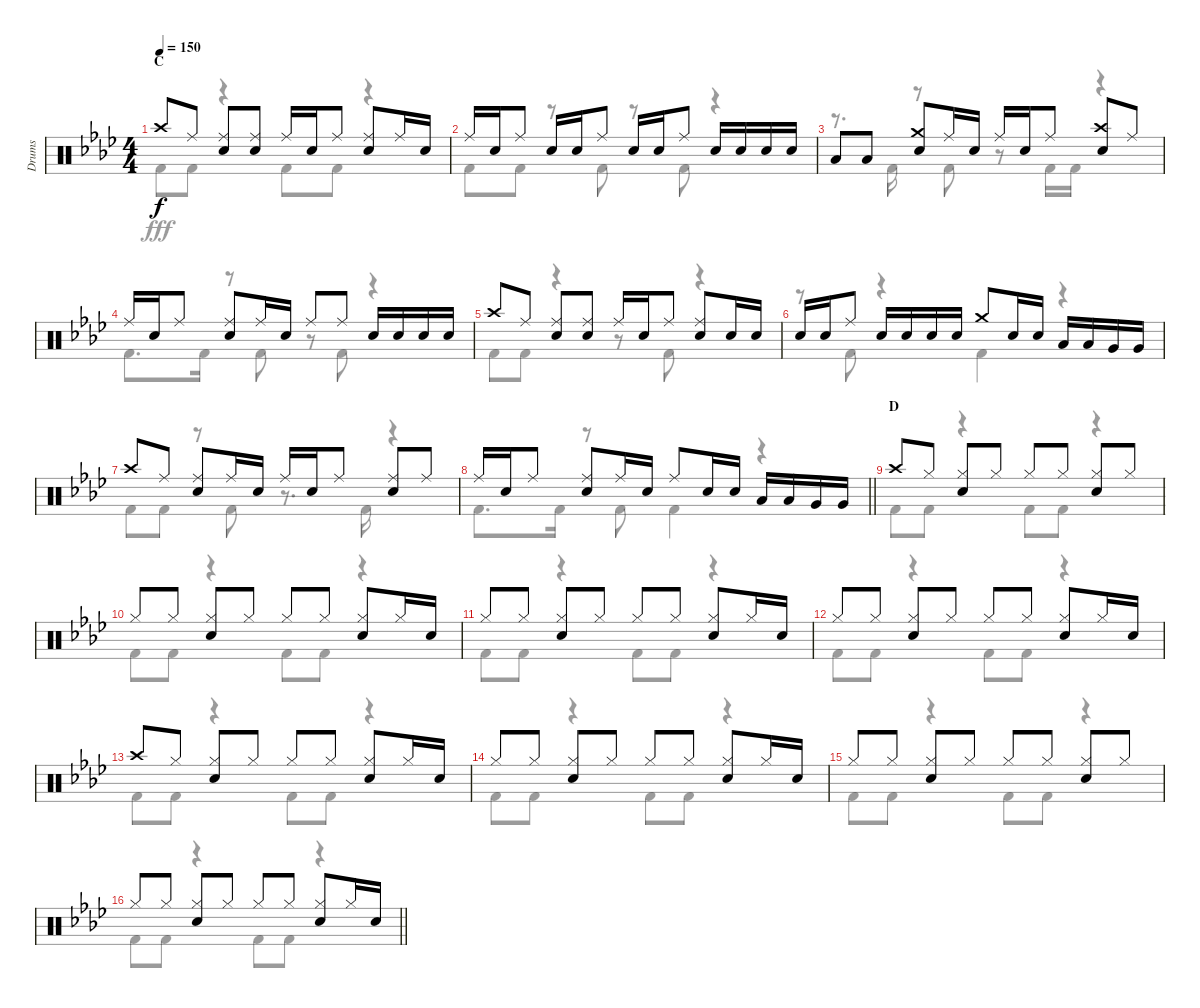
\track ("Drums" "Drums") {instrument percussion}
\staff {score}
\articulation defaults
\voice
\ts (4 4)
\section ("" "C")
\tempo 150
\clef neutral
\ks ab "Crash high (hit)".8{dy f} "Ride (middle)".8
("Ride (middle)" "Snare (hit) 2").8 ("Ride (middle)" "Snare (hit) 2").8 "Ride (middle)".16 "Snare (hit) 2".16 "Ride (middle)".8 ("Ride (middle)" "Snare (hit) 2").8 "Ride (middle)".16 "Snare (hit) 2".16 |
"Ride (middle)".16 "Snare (hit) 2".16 "Ride (middle)".8 "Snare (hit) 2".16 "Snare (hit) 2".16 "Ride (middle)".8 "Snare (hit) 2".16 "Snare (hit) 2".16 "Ride (middle)".8 "Snare (hit) 2".16 "Snare (hit) 2".16 "Snare (hit) 2".16 "Snare (hit) 2".16 |
"Low Tom (hit)".8 "Low Tom (hit)".8 ("Crash medium (hit)" "Snare (hit) 2").8 "Ride (middle)".16 "Snare (hit) 2".16 "Ride (middle)".16 "Snare (hit) 2".16 "Ride (middle)".8 ("Crash high (hit)" "Snare (hit) 2").8 "Ride (middle)".8 |
"Ride (middle)".16 "Snare (hit) 2".16 "Ride (middle)".8 ("Ride (middle)" "Snare (hit) 2").8 "Ride (middle)".16 "Snare (hit) 2".16 "Ride (middle)".8 "Ride (middle)".8 "Snare (hit) 2".16 "Snare (hit) 2".16 "Snare (hit) 2".16 "Snare (hit) 2".16 |
"Crash high (hit)".8 "Ride (middle)".8 ("Ride (middle)" "Snare (hit) 2").8 ("Ride (middle)" "Snare (hit) 2").8 "Ride (middle)".16 "Snare (hit) 2".16 "Ride (middle)".8 ("Ride (middle)" "Snare (hit) 2").8 "Snare (hit) 2".16 "Snare (hit) 2".16 |
"Snare (hit) 2".16 "Snare (hit) 2".16 "Ride (middle)".8 "Snare (hit) 2".16 "Snare (hit) 2".16 "Snare (hit) 2".16 "Snare (hit) 2".16 "Crash medium (hit)".8 "Snare (hit) 2".16 "Snare (hit) 2".16 "Low Tom (hit)".16 "Low Tom (hit)".16 "Very Low Tom (hit)".16 "Very Low Tom (hit)".16 |
"Crash high (hit)".8 "Ride (middle)".8 ("Ride (middle)" "Snare (hit) 2").8 "Ride (middle)".16 "Snare (hit) 2".16 "Ride (middle)".16 "Snare (hit) 2".16 "Ride (middle)".8 ("Ride (middle)" "Snare (hit) 2").8 "Ride (middle)".8 |
\barLineRight lightlight "Ride (middle)".16 "Snare (hit) 2".16 "Ride (middle)".8
("Ride (middle)" "Snare (hit) 2").8 "Ride (middle)".16 "Snare (hit) 2".16 "Ride (middle)".8 "Snare (hit) 2".16 "Snare (hit) 2".16 "Low Tom (hit)".16 "Low Tom (hit)".16 "Very Low Tom (hit)".16 "Very Low Tom (hit)".16 |
\section ("" "D")
"Crash high (hit)".8 "Hi-Hat (closed)".8 ("Hi-Hat (closed)" "Snare (hit) 2").8 "Hi-Hat (closed)".8 "Hi-Hat (closed)".8 "Hi-Hat (closed)".8 ("Hi-Hat (closed)" "Snare (hit) 2").8 "Hi-Hat (closed)".8 |
"Hi-Hat (closed)".8 "Hi-Hat (closed)".8 ("Hi-Hat (closed)" "Snare (hit) 2").8 "Hi-Hat (closed)".8 "Hi-Hat (closed)".8 "Hi-Hat (closed)".8 ("Hi-Hat (closed)" "Snare (hit) 2").8 "Hi-Hat (closed)".16 "Snare (hit) 2".16 |
"Hi-Hat (closed)".8 "Hi-Hat (closed)".8 ("Hi-Hat (closed)" "Snare (hit) 2").8 "Hi-Hat (closed)".8 "Hi-Hat (closed)".8 "Hi-Hat (closed)".8 ("Hi-Hat (closed)" "Snare (hit) 2").8 "Hi-Hat (closed)".16 "Snare (hit) 2".16 |
"Hi-Hat (closed)".8 "Hi-Hat (closed)".8 ("Hi-Hat (closed)" "Snare (hit) 2").8 "Hi-Hat (closed)".8 "Hi-Hat (closed)".8 "Hi-Hat (closed)".8 ("Hi-Hat (closed)" "Snare (hit) 2").8 "Hi-Hat (closed)".16 "Snare (hit) 2".16 |
"Crash high (hit)".8 "Hi-Hat (closed)".8 ("Hi-Hat (closed)" "Snare (hit) 2").8 "Hi-Hat (closed)".8 "Hi-Hat (closed)".8 "Hi-Hat (closed)".8 ("Hi-Hat (closed)" "Snare (hit) 2").8 "Hi-Hat (closed)".16 "Snare (hit) 2".16 |
"Hi-Hat (closed)".8 "Hi-Hat (closed)".8 ("Hi-Hat (closed)" "Snare (hit) 2").8 "Hi-Hat (closed)".8 "Hi-Hat (closed)".8 "Hi-Hat (closed)".8 ("Hi-Hat (closed)" "Snare (hit) 2").8 "Hi-Hat (closed)".16 "Snare (hit) 2".16 |
"Hi-Hat (closed)".8 "Hi-Hat (closed)".8 ("Hi-Hat (closed)" "Snare (hit) 2").8 "Hi-Hat (closed)".8 "Hi-Hat (closed)".8 "Hi-Hat (closed)".8 ("Hi-Hat (closed)" "Snare (hit) 2").8 "Hi-Hat (closed)".8 |
\barLineRight lightlight "Hi-Hat (closed)".8 "Hi-Hat (closed)".8
("Hi-Hat (closed)" "Snare (hit) 2").8 "Hi-Hat (closed)".8 "Hi-Hat (closed)".8 "Hi-Hat (closed)".8 ("Hi-Hat (closed)" "Snare (hit) 2").8 "Hi-Hat (closed)".16 "Snare (hit) 2".16
\voice
\clef neutral
\ottava regular
\simile none
\ks ab "Kick (hit) 2".8{dy fff} "Kick (hit) 2".8
r.4 "Kick (hit) 2".8 "Kick (hit) 2".8 r.4 |
"Kick (hit) 2".8 "Kick (hit) 2".8 r.8 "Kick (hit) 2".8 r.8 "Kick (hit) 2".8 r.4 |
r.8{d} "Kick (hit) 2".16 r.8 "Kick (hit) 2".8 r.8 "Kick (hit) 2".16 "Kick (hit) 2".16 r.4 |
"Kick (hit) 2".8{d} "Kick (hit) 2".16 r.8 "Kick (hit) 2".8 r.8 "Kick (hit) 2".8 r.4 |
"Kick (hit) 2".8 "Kick (hit) 2".8 r.4 r.8 "Kick (hit) 2".8 r.4 |
r.8 "Kick (hit) 2".8 r.4 "Kick (hit) 2".4 r.4 |
"Kick (hit) 2".8 "Kick (hit) 2".8 r.8 "Kick (hit) 2".8 r.8{d} "Kick (hit) 2".16 r.4 |
\barLineRight lightlight "Kick (hit) 2".8{d} "Kick (hit) 2".16
r.8 "Kick (hit) 2".8 "Kick (hit) 2".4 r.4 |
"Kick (hit) 2".8 "Kick (hit) 2".8 r.4 "Kick (hit) 2".8 "Kick (hit) 2".8 r.4 |
"Kick (hit) 2".8 "Kick (hit) 2".8 r.4 "Kick (hit) 2".8 "Kick (hit) 2".8 r.4 |
"Kick (hit) 2".8 "Kick (hit) 2".8 r.4 "Kick (hit) 2".8 "Kick (hit) 2".8 r.4 |
"Kick (hit) 2".8 "Kick (hit) 2".8 r.4 "Kick (hit) 2".8 "Kick (hit) 2".8 r.4 |
"Kick (hit) 2".8 "Kick (hit) 2".8 r.4 "Kick (hit) 2".8 "Kick (hit) 2".8 r.4 |
"Kick (hit) 2".8 "Kick (hit) 2".8 r.4 "Kick (hit) 2".8 "Kick (hit) 2".8 r.4 |
"Kick (hit) 2".8 "Kick (hit) 2".8 r.4 "Kick (hit) 2".8 "Kick (hit) 2".8 r.4 |
\barLineRight lightlight "Kick (hit) 2".8 "Kick (hit) 2".8
r.4 "Kick (hit) 2".8 "Kick (hit) 2".8 r.4
